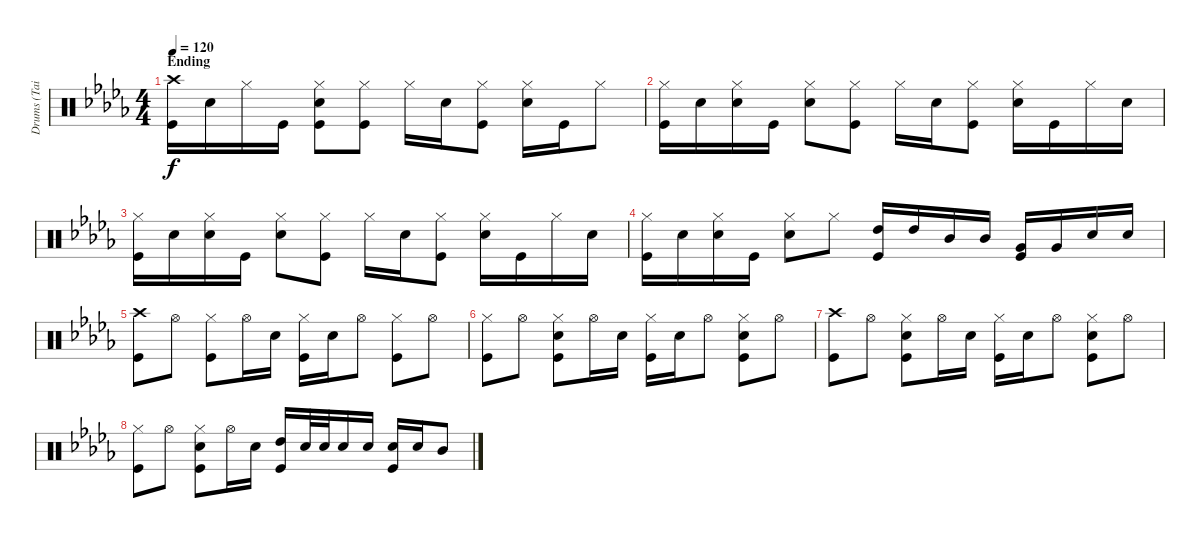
\track ("Drums (Tainaka Ritsu)" "Drums (Tai") {instrument percussion}
\staff {score}
\articulation defaults
\ts (4 4)
\section ("" "Ending")
\tempo 120
\clef neutral
\ks db
("Crash high (hit)" "Kick (hit)").16{dy f} "Snare (hit) 2".16 "Hi-Hat (closed)".16 "Kick (hit)".16 ("Hi-Hat (closed)" "Snare (hit) 2" "Kick (hit)").8 ("Hi-Hat (closed)" "Kick (hit)").8 "Hi-Hat (closed)".16 "Snare (hit) 2".16 ("Hi-Hat (closed)" "Kick (hit)").8 ("Hi-Hat (closed)" "Snare (hit) 2").16 "Kick (hit)".16 "Hi-Hat (closed)".8 |
("Hi-Hat (closed)" "Kick (hit)").16 "Snare (hit) 2".16 ("Hi-Hat (closed)" "Snare (hit) 2").16 "Kick (hit)".16 ("Hi-Hat (closed)" "Snare (hit) 2").8 ("Hi-Hat (closed)" "Kick (hit)").8 "Hi-Hat (closed)".16 "Snare (hit) 2".16 ("Hi-Hat (closed)" "Kick (hit)").8 ("Hi-Hat (closed)" "Snare (hit) 2").16 "Kick (hit)".16 "Hi-Hat (closed)".16 "Snare (hit) 2".16 |
("Hi-Hat (closed)" "Kick (hit)").16 "Snare (hit) 2".16 ("Hi-Hat (closed)" "Snare (hit) 2").16 "Kick (hit)".16 ("Hi-Hat (closed)" "Snare (hit) 2").8 ("Hi-Hat (closed)" "Kick (hit)").8 "Hi-Hat (closed)".16 "Snare (hit) 2".16 ("Hi-Hat (closed)" "Kick (hit)").8 ("Hi-Hat (closed)" "Snare (hit) 2").16 "Kick (hit)".16 "Hi-Hat (closed)".16 "Snare (hit) 2".16 |
("Hi-Hat (closed)" "Kick (hit)").16 "Snare (hit) 2".16 ("Hi-Hat (closed)" "Snare (hit) 2").16 "Kick (hit)".16 ("Hi-Hat (closed)" "Snare (hit) 2").8 "Hi-Hat (closed)".8 ("High Tom (hit)" "Kick (hit)").16 "High Tom (hit)".16 "Mid Tom (hit)".16 "Mid Tom (hit)".16 ("Very Low Tom (hit)" "Kick (hit)").16 "Very Low Tom (hit)".16 "Snare (hit) 2".16 "Snare (hit) 2".16 |
("Crash high (hit)" "Kick (hit)").8 "Hi-Hat (open)".8 ("Hi-Hat (closed)" "Kick (hit)").8 "Hi-Hat (open)".16 "Snare (hit) 2".16 ("Hi-Hat (closed)" "Kick (hit)").16 "Snare (hit) 2".16 "Hi-Hat (open)".8 ("Hi-Hat (closed)" "Kick (hit)").8 "Hi-Hat (open)".8 |
("Hi-Hat (closed)" "Kick (hit)").8 "Hi-Hat (open)".8 ("Hi-Hat (closed)" "Snare (hit) 2" "Kick (hit)").8 "Hi-Hat (open)".16 "Snare (hit) 2".16 ("Hi-Hat (closed)" "Kick (hit)").16 "Snare (hit) 2".16 "Hi-Hat (open)".8 ("Hi-Hat (closed)" "Snare (hit) 2" "Kick (hit)").8 "Hi-Hat (open)".8 |
("Crash high (hit)" "Kick (hit)").8 "Hi-Hat (open)".8 ("Hi-Hat (closed)" "Snare (hit) 2" "Kick (hit)").8 "Hi-Hat (open)".16 "Snare (hit) 2".16 ("Hi-Hat (closed)" "Kick (hit)").16 "Snare (hit) 2".16 "Hi-Hat (open)".8 ("Hi-Hat (closed)" "Snare (hit) 2" "Kick (hit)").8 "Hi-Hat (open)".8 |
("Hi-Hat (closed)" "Kick (hit)").8 "Hi-Hat (open)".8 ("Hi-Hat (closed)" "Snare (hit) 2" "Kick (hit)").8 "Hi-Hat (open)".16 "Snare (hit) 2".16 ("High Tom (hit)" "Kick (hit)").16 "Snare (hit) 2".32 "Snare (hit) 2".32 "Snare (hit) 2".16 "Snare (hit) 2".16 ("Snare (hit) 2" "Kick (hit)").16 "Snare (hit) 2".16 "Mid Tom (hit)".8
